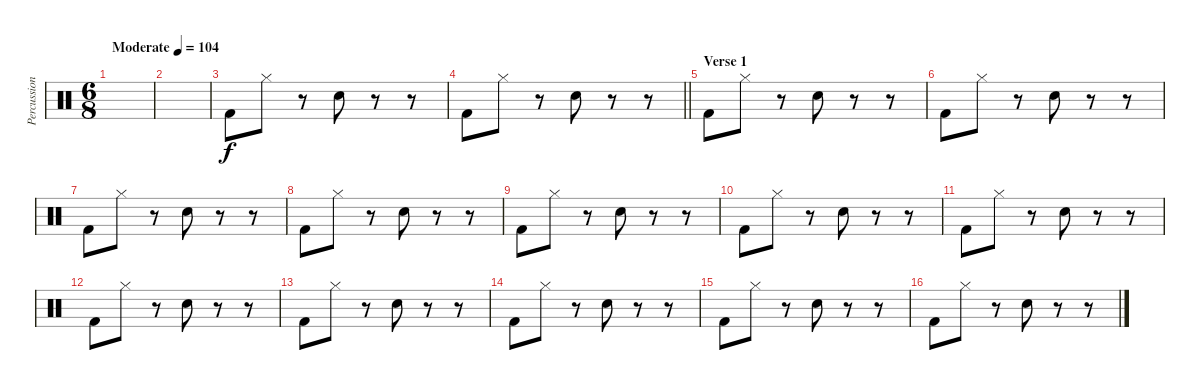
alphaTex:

\track ("Percussion" "Percussion") {instrument percussion}
\staff {score}
\articulation defaults
\ts (6 8)
\tempo (104 "Moderate")
\clef neutral
\ks c
|
|
"Kick (hit) 2".8 "Hi-Hat (closed)".8 r.8 "Snare (hit) 2".8 r.8 r.8 |
\barLineRight lightlight "Kick (hit) 2".8 "Hi-Hat (closed)".8
r.8 "Snare (hit) 2".8 r.8 r.8 |
\section ("" "Verse 1")
"Kick (hit) 2".8 "Hi-Hat (closed)".8 r.8 "Snare (hit) 2".8 r.8 r.8 |
"Kick (hit) 2".8 "Hi-Hat (closed)".8 r.8 "Snare (hit) 2".8 r.8 r.8 |
"Kick (hit) 2".8 "Hi-Hat (closed)".8 r.8 "Snare (hit) 2".8 r.8 r.8 |
"Kick (hit) 2".8 "Hi-Hat (closed)".8 r.8 "Snare (hit) 2".8 r.8 r.8 |
"Kick (hit) 2".8 "Hi-Hat (closed)".8 r.8 "Snare (hit) 2".8 r.8 r.8 |
"Kick (hit) 2".8 "Hi-Hat (closed)".8 r.8 "Snare (hit) 2".8 r.8 r.8 |
"Kick (hit) 2".8 "Hi-Hat (closed)".8 r.8 "Snare (hit) 2".8 r.8 r.8 |
"Kick (hit) 2".8 "Hi-Hat (closed)".8 r.8 "Snare (hit) 2".8 r.8 r.8 |
"Kick (hit) 2".8 "Hi-Hat (closed)".8 r.8 "Snare (hit) 2".8 r.8 r.8 |
"Kick (hit) 2".8 "Hi-Hat (closed)".8 r.8 "Snare (hit) 2".8 r.8 r.8 |
"Kick (hit) 2".8 "Hi-Hat (closed)".8 r.8 "Snare (hit) 2".8 r.8 r.8 |
"Kick (hit) 2".8 "Hi-Hat (closed)".8 r.8 "Snare (hit) 2".8 r.8 r.8
